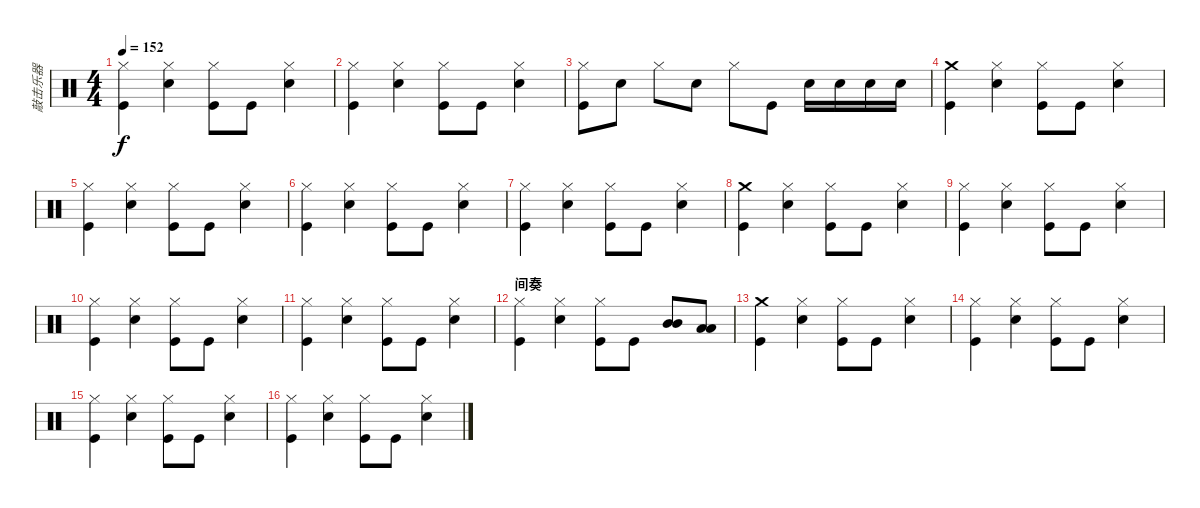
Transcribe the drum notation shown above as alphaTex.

\track ("敲击乐器" "敲击乐器") {instrument percussion}
\staff {score}
\articulation defaults
\ts (4 4)
\tempo 152
\clef neutral
\ks c
("Hi-Hat (closed)" "Kick (hit)").4{dy f} ("Hi-Hat (closed)" "Electric Snare (hit)").4 ("Hi-Hat (closed)" "Kick (hit)").8 "Kick (hit)".8 ("Hi-Hat (closed)" "Electric Snare (hit)").4 |
("Hi-Hat (closed)" "Kick (hit)").4 ("Hi-Hat (closed)" "Electric Snare (hit)").4 ("Hi-Hat (closed)" "Kick (hit)").8 "Kick (hit)".8 ("Hi-Hat (closed)" "Electric Snare (hit)").4 |
("Hi-Hat (closed)" "Kick (hit)").8 "Electric Snare (hit)".8 "Hi-Hat (closed)".8 "Electric Snare (hit)".8 "Hi-Hat (closed)".8 "Kick (hit)".8 "Electric Snare (hit)".16 "Electric Snare (hit)".16 "Electric Snare (hit)".16 "Electric Snare (hit)".16 |
("Crash medium (hit)" "Kick (hit)").4 ("Hi-Hat (closed)" "Electric Snare (hit)").4 ("Hi-Hat (closed)" "Kick (hit)").8 "Kick (hit)".8 ("Hi-Hat (closed)" "Electric Snare (hit)").4 |
("Hi-Hat (closed)" "Kick (hit)").4 ("Hi-Hat (closed)" "Electric Snare (hit)").4 ("Hi-Hat (closed)" "Kick (hit)").8 "Kick (hit)".8 ("Hi-Hat (closed)" "Electric Snare (hit)").4 |
("Hi-Hat (closed)" "Kick (hit)").4 ("Hi-Hat (closed)" "Electric Snare (hit)").4 ("Hi-Hat (closed)" "Kick (hit)").8 "Kick (hit)".8 ("Hi-Hat (closed)" "Electric Snare (hit)").4 |
("Hi-Hat (closed)" "Kick (hit)").4 ("Hi-Hat (closed)" "Electric Snare (hit)").4 ("Hi-Hat (closed)" "Kick (hit)").8 "Kick (hit)".8 ("Hi-Hat (closed)" "Electric Snare (hit)").4 |
("Crash medium (hit)" "Kick (hit)").4 ("Hi-Hat (closed)" "Electric Snare (hit)").4 ("Hi-Hat (closed)" "Kick (hit)").8 "Kick (hit)".8 ("Hi-Hat (closed)" "Electric Snare (hit)").4 |
("Hi-Hat (closed)" "Kick (hit)").4 ("Hi-Hat (closed)" "Electric Snare (hit)").4 ("Hi-Hat (closed)" "Kick (hit)").8 "Kick (hit)".8 ("Hi-Hat (closed)" "Electric Snare (hit)").4 |
("Hi-Hat (closed)" "Kick (hit)").4 ("Hi-Hat (closed)" "Electric Snare (hit)").4 ("Hi-Hat (closed)" "Kick (hit)").8 "Kick (hit)".8 ("Hi-Hat (closed)" "Electric Snare (hit)").4 |
("Hi-Hat (closed)" "Kick (hit)").4 ("Hi-Hat (closed)" "Electric Snare (hit)").4 ("Hi-Hat (closed)" "Kick (hit)").8 "Kick (hit)".8 ("Hi-Hat (closed)" "Electric Snare (hit)").4 |
\section ("" "间奏")
("Hi-Hat (closed)" "Kick (hit)").4 ("Hi-Hat (closed)" "Electric Snare (hit)").4 ("Hi-Hat (closed)" "Kick (hit)").8 "Kick (hit)".8 ("Mid Tom (hit)" "Mid Tom (hit)").8 ("Low Tom (hit)" "Low Tom (hit)").8 |
("Crash medium (hit)" "Kick (hit)").4 ("Hi-Hat (closed)" "Electric Snare (hit)").4 ("Hi-Hat (closed)" "Kick (hit)").8 "Kick (hit)".8 ("Hi-Hat (closed)" "Electric Snare (hit)").4 |
("Hi-Hat (closed)" "Kick (hit)").4 ("Hi-Hat (closed)" "Electric Snare (hit)").4 ("Hi-Hat (closed)" "Kick (hit)").8 "Kick (hit)".8 ("Hi-Hat (closed)" "Electric Snare (hit)").4 |
("Hi-Hat (closed)" "Kick (hit)").4 ("Hi-Hat (closed)" "Electric Snare (hit)").4 ("Hi-Hat (closed)" "Kick (hit)").8 "Kick (hit)".8 ("Hi-Hat (closed)" "Electric Snare (hit)").4 |
("Hi-Hat (closed)" "Kick (hit)").4 ("Hi-Hat (closed)" "Electric Snare (hit)").4 ("Hi-Hat (closed)" "Kick (hit)").8 "Kick (hit)".8 ("Hi-Hat (closed)" "Electric Snare (hit)").4
